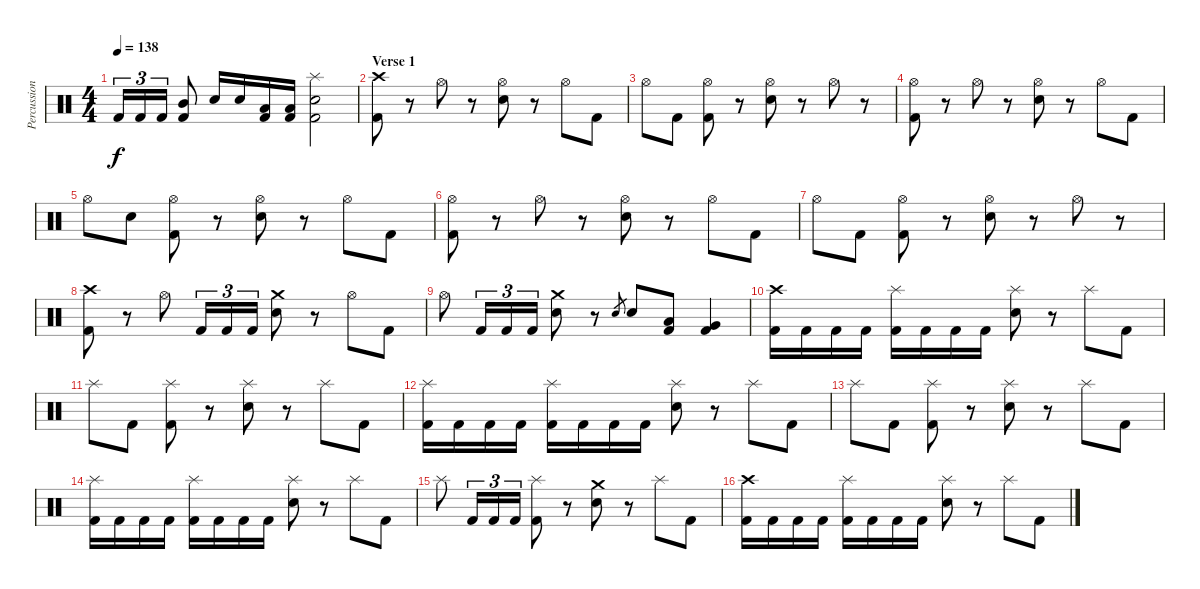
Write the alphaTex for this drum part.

\track ("Percussion" "Percussion") {instrument percussion}
\staff {score}
\articulation defaults
\ts (4 4)
\tempo 138
\clef neutral
\ks c "Kick (hit) 2".16{tu (3 2) dy f} "Kick (hit) 2".16{tu (3 2)} "Kick (hit) 2".16{tu (3 2)}
("Mid Tom (hit)" "Kick (hit) 2").8 "Electric Snare (hit)".16 "Electric Snare (hit)".16 ("Low Tom (hit)" "Kick (hit) 2").16 ("Low Tom (hit)" "Kick (hit) 2").16 ("Splash (hit)" "Electric Snare (hit)" "Kick (hit) 2").2 |
\section ("" "Verse 1")
("Crash high (hit)" "Kick (hit) 2").8 r.8 "Hi-Hat (open)".8 r.8 ("Hi-Hat (open)" "Electric Snare (hit)").8 r.8 "Hi-Hat (open)".8 "Kick (hit) 2".8 |
"Hi-Hat (open)".8 "Kick (hit) 2".8 ("Hi-Hat (open)" "Kick (hit) 2").8 r.8 ("Hi-Hat (open)" "Electric Snare (hit)").8 r.8 "Hi-Hat (open)".8 r.8 |
("Hi-Hat (open)" "Kick (hit) 2").8 r.8 "Hi-Hat (open)".8 r.8 ("Hi-Hat (open)" "Electric Snare (hit)").8 r.8 "Hi-Hat (open)".8 "Kick (hit) 2".8 |
"Hi-Hat (open)".8 "Electric Snare (hit)".8 ("Hi-Hat (open)" "Kick (hit) 2").8 r.8 ("Hi-Hat (open)" "Electric Snare (hit)").8 r.8 "Hi-Hat (open)".8 "Kick (hit) 2".8 |
("Hi-Hat (open)" "Kick (hit) 2").8 r.8 "Hi-Hat (open)".8 r.8 ("Hi-Hat (open)" "Electric Snare (hit)").8 r.8 "Hi-Hat (open)".8 "Kick (hit) 2".8 |
"Hi-Hat (open)".8 "Kick (hit) 2".8 ("Hi-Hat (open)" "Kick (hit) 2").8 r.8 ("Hi-Hat (open)" "Electric Snare (hit)").8 r.8 "Hi-Hat (open)".8 r.8 |
("Crash high (hit)" "Kick (hit) 2").8 r.8 "Hi-Hat (open)".8 "Kick (hit) 2".16{tu (3 2)} "Kick (hit) 2".16{tu (3 2)} "Kick (hit) 2".16{tu (3 2)} ("Crash medium (hit)" "Electric Snare (hit)").8 r.8 "Hi-Hat (open)".8 "Kick (hit) 2".8 |
"Hi-Hat (open)".8 "Kick (hit) 2".16{tu (3 2)} "Kick (hit) 2".16{tu (3 2)} "Kick (hit) 2".16{tu (3 2)} ("Crash medium (hit)" "Electric Snare (hit)").8 r.8 "Electric Snare (hit)".8{gr} "Electric Snare (hit)".8 ("Low Tom (hit)" "Kick (hit) 2").8 ("Very Low Tom (hit)" "Kick (hit) 2").4 |
("Crash high (hit)" "Kick (hit) 2").16 "Kick (hit) 2".16 "Kick (hit) 2".16 "Kick (hit) 2".16 ("Splash (hit)" "Kick (hit) 2").16 "Kick (hit) 2".16 "Kick (hit) 2".16 "Kick (hit) 2".16 ("Splash (hit)" "Electric Snare (hit)").8 r.8 "Splash (hit)".8 "Kick (hit) 2".8 |
"Splash (hit)".8 "Kick (hit) 2".8 ("Splash (hit)" "Kick (hit) 2").8 r.8 ("Splash (hit)" "Electric Snare (hit)").8 r.8 "Splash (hit)".8 "Kick (hit) 2".8 |
("Splash (hit)" "Kick (hit) 2").16 "Kick (hit) 2".16 "Kick (hit) 2".16 "Kick (hit) 2".16 ("Splash (hit)" "Kick (hit) 2").16 "Kick (hit) 2".16 "Kick (hit) 2".16 "Kick (hit) 2".16 ("Splash (hit)" "Electric Snare (hit)").8 r.8 "Splash (hit)".8 "Kick (hit) 2".8 |
"Splash (hit)".8 "Kick (hit) 2".8 ("Splash (hit)" "Kick (hit) 2").8 r.8 ("Splash (hit)" "Electric Snare (hit)").8 r.8 "Splash (hit)".8 "Kick (hit) 2".8 |
("Splash (hit)" "Kick (hit) 2").16 "Kick (hit) 2".16 "Kick (hit) 2".16 "Kick (hit) 2".16 ("Splash (hit)" "Kick (hit) 2").16 "Kick (hit) 2".16 "Kick (hit) 2".16 "Kick (hit) 2".16 ("Splash (hit)" "Electric Snare (hit)").8 r.8 "Splash (hit)".8 "Kick (hit) 2".8 |
"Splash (hit)".8 "Kick (hit) 2".16{tu (3 2)} "Kick (hit) 2".16{tu (3 2)} "Kick (hit) 2".16{tu (3 2)} ("Splash (hit)" "Kick (hit) 2").8 r.8 ("Crash medium (hit)" "Electric Snare (hit)").8 r.8 "Splash (hit)".8 "Kick (hit) 2".8 |
("Crash high (hit)" "Kick (hit) 2").16 "Kick (hit) 2".16 "Kick (hit) 2".16 "Kick (hit) 2".16 ("Splash (hit)" "Kick (hit) 2").16 "Kick (hit) 2".16 "Kick (hit) 2".16 "Kick (hit) 2".16 ("Splash (hit)" "Electric Snare (hit)").8 r.8 "Splash (hit)".8 "Kick (hit) 2".8
